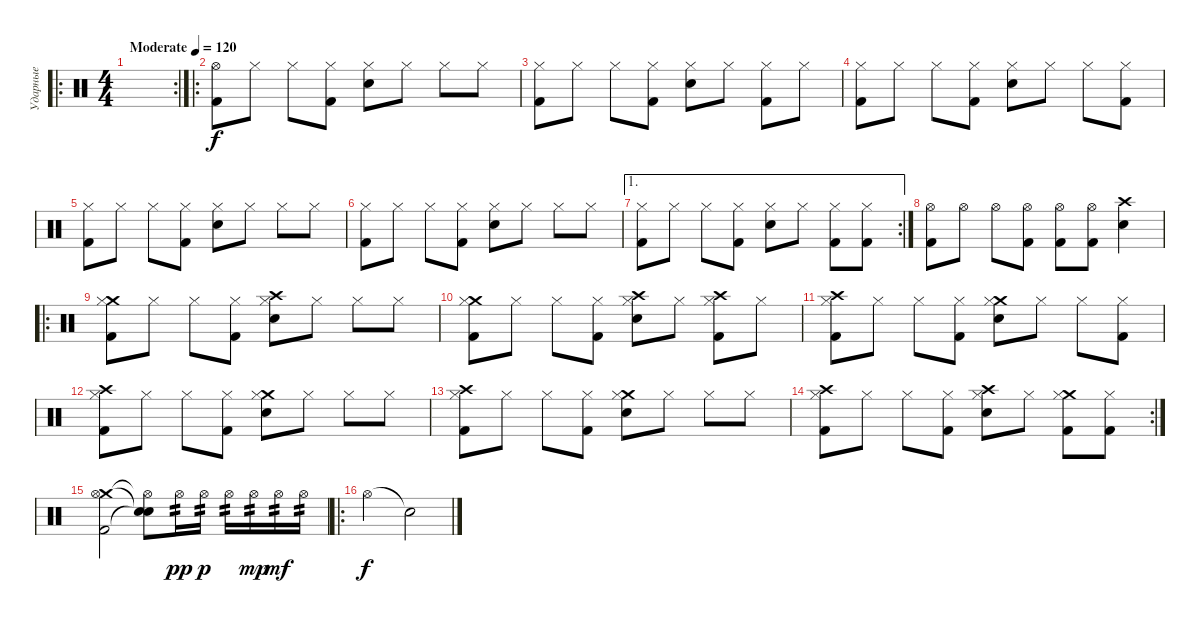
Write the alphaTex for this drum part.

\track ("Ударные" "Ударные") {instrument percussion}
\staff {score}
\articulation defaults
\ro
\rc 2
\ts (4 4)
\tempo (120 "Moderate")
\clef neutral
\ks c
|
\ro
("Kick (hit) 2" "Hi-Hat (open)").8 "Hi-Hat (closed)".8 "Hi-Hat (closed)".8 ("Kick (hit) 2" "Hi-Hat (closed)").8 ("Snare (hit) 2" "Hi-Hat (closed)").8 "Hi-Hat (closed)".8 "Hi-Hat (closed)".8 "Hi-Hat (closed)".8 |
("Kick (hit) 2" "Hi-Hat (closed)").8 "Hi-Hat (closed)".8 "Hi-Hat (closed)".8 ("Kick (hit) 2" "Hi-Hat (closed)").8 ("Snare (hit) 2" "Hi-Hat (closed)").8 "Hi-Hat (closed)".8 ("Kick (hit) 2" "Hi-Hat (closed)").8 "Hi-Hat (closed)".8 |
("Kick (hit) 2" "Hi-Hat (closed)").8 "Hi-Hat (closed)".8 "Hi-Hat (closed)".8 ("Kick (hit) 2" "Hi-Hat (closed)").8 ("Snare (hit) 2" "Hi-Hat (closed)").8 "Hi-Hat (closed)".8 "Hi-Hat (closed)".8 ("Kick (hit) 2" "Hi-Hat (closed)").8 |
("Kick (hit) 2" "Hi-Hat (closed)").8 "Hi-Hat (closed)".8 "Hi-Hat (closed)".8 ("Kick (hit) 2" "Hi-Hat (closed)").8 ("Snare (hit) 2" "Hi-Hat (closed)").8 "Hi-Hat (closed)".8 "Hi-Hat (closed)".8 "Hi-Hat (closed)".8 |
("Kick (hit) 2" "Hi-Hat (closed)").8 "Hi-Hat (closed)".8 "Hi-Hat (closed)".8 ("Kick (hit) 2" "Hi-Hat (closed)").8 ("Snare (hit) 2" "Hi-Hat (closed)").8 "Hi-Hat (closed)".8 "Hi-Hat (closed)".8 "Hi-Hat (closed)".8 |
\ae 1
\rc 2
("Kick (hit) 2" "Hi-Hat (closed)").8 "Hi-Hat (closed)".8 "Hi-Hat (closed)".8 ("Kick (hit) 2" "Hi-Hat (closed)").8 ("Snare (hit) 2" "Hi-Hat (closed)").8 "Hi-Hat (closed)".8 ("Kick (hit) 2" "Hi-Hat (closed)").8 ("Kick (hit) 2" "Hi-Hat (closed)").8 |
("Kick (hit) 2" "Hi-Hat (open)").8 "Hi-Hat (open)".8 "Hi-Hat (open)".8 ("Kick (hit) 2" "Hi-Hat (open)").8 ("Kick (hit) 2" "Hi-Hat (open)").8 ("Kick (hit) 2" "Hi-Hat (open)").8 ("Crash high (hit)" "Snare (hit) 2").4 |
\ro
("Crash medium (hit)" "Kick (hit) 2" "Hi-Hat (closed)").8 "Hi-Hat (closed)".8 "Hi-Hat (closed)".8 ("Kick (hit) 2" "Hi-Hat (closed)").8 ("Crash high (hit)" "Snare (hit) 2" "Hi-Hat (closed)").8 "Hi-Hat (closed)".8 "Hi-Hat (closed)".8 "Hi-Hat (closed)".8 |
("Crash medium (hit)" "Kick (hit) 2" "Hi-Hat (closed)").8 "Hi-Hat (closed)".8 "Hi-Hat (closed)".8 ("Kick (hit) 2" "Hi-Hat (closed)").8 ("Crash high (hit)" "Snare (hit) 2" "Hi-Hat (closed)").8 "Hi-Hat (closed)".8 ("Crash high (hit)" "Kick (hit) 2" "Hi-Hat (closed)").8 "Hi-Hat (closed)".8 |
("Crash high (hit)" "Kick (hit) 2" "Hi-Hat (closed)").8 "Hi-Hat (closed)".8 "Hi-Hat (closed)".8 ("Kick (hit) 2" "Hi-Hat (closed)").8 ("Crash medium (hit)" "Snare (hit) 2" "Hi-Hat (closed)").8 "Hi-Hat (closed)".8 "Hi-Hat (closed)".8 ("Kick (hit) 2" "Hi-Hat (closed)").8 |
("Crash high (hit)" "Kick (hit) 2" "Hi-Hat (closed)").8 "Hi-Hat (closed)".8 "Hi-Hat (closed)".8 ("Kick (hit) 2" "Hi-Hat (closed)").8 ("Crash medium (hit)" "Snare (hit) 2" "Hi-Hat (closed)").8 "Hi-Hat (closed)".8 "Hi-Hat (closed)".8 "Hi-Hat (closed)".8 |
("Crash high (hit)" "Kick (hit) 2" "Hi-Hat (closed)").8 "Hi-Hat (closed)".8 "Hi-Hat (closed)".8 ("Kick (hit) 2" "Hi-Hat (closed)").8 ("Crash medium (hit)" "Snare (hit) 2" "Hi-Hat (closed)").8 "Hi-Hat (closed)".8 "Hi-Hat (closed)".8 "Hi-Hat (closed)".8 |
\rc 2
("Crash high (hit)" "Kick (hit) 2" "Hi-Hat (closed)").8 "Hi-Hat (closed)".8 "Hi-Hat (closed)".8 ("Kick (hit) 2" "Hi-Hat (closed)").8 ("Crash high (hit)" "Snare (hit) 2" "Hi-Hat (closed)").8 "Hi-Hat (closed)".8 ("Crash medium (hit)" "Kick (hit) 2" "Hi-Hat (closed)").8 ("Kick (hit) 2" "Hi-Hat (closed)").8 |
("Crash medium (hit)" "Kick (hit) 2" "Hi-Hat (open)").2 ("Snare (hit)"{t} "Snare (hit)"{t} "Hi-Hat (open)"{t}).8 "Hi-Hat (open)".16{tp 2 dy pp} "Hi-Hat (open)".16{tp 2 dy p} "Hi-Hat (open)".16{tp 2} "Hi-Hat (open)".16{tp 2 dy mp} "Hi-Hat (open)".16{tp 2 dy mf} "Hi-Hat (open)".16{tp 2} |
\ro "Hi-Hat (open)".2{dy f} "Snare (hit)"{t}.2
